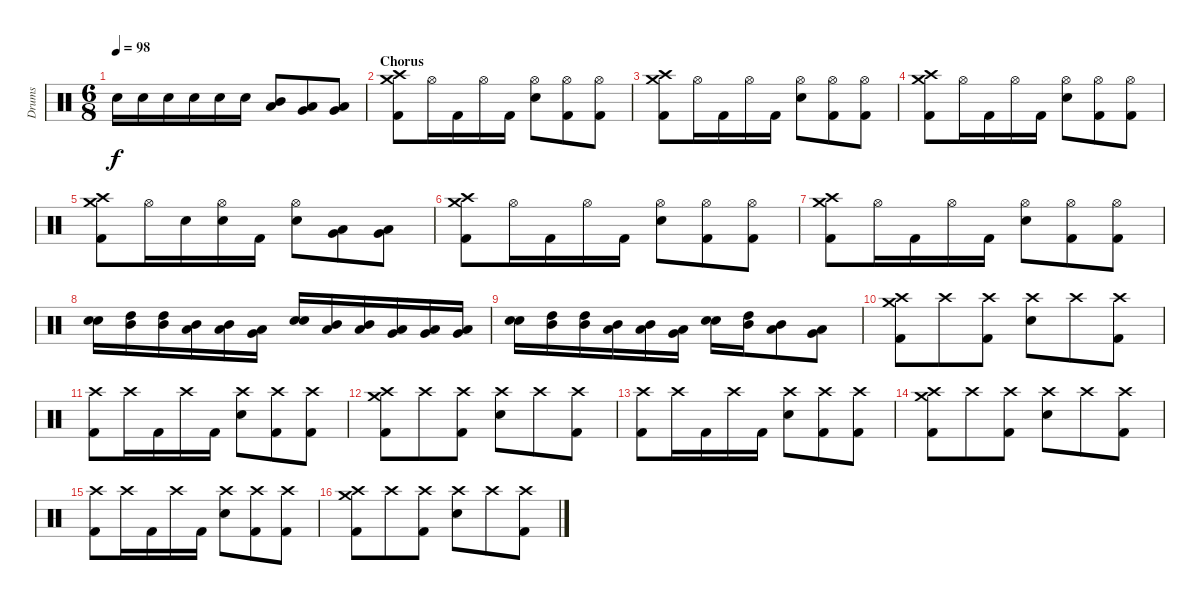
\track ("Drums" "Drums") {instrument percussion}
\staff {score}
\articulation defaults
\ts (6 8)
\tempo 98
\clef neutral
\ks c "Electric Snare (hit)".16{dy f} "Electric Snare (hit)".16 "Electric Snare (hit)".16 "Electric Snare (hit)".16 "Electric Snare (hit)".16 "Electric Snare (hit)".16
("Mid Tom (hit)" "Low Tom (hit)").8 ("Low Tom (hit)" "Very Low Tom (hit)").8 ("Very Low Tom (hit)" "Low Floor Tom (hit)").8 |
\section ("" "Chorus")
("Crash high (hit)" "Crash medium (hit)" "Kick (hit) 2").8 "Hi-Hat (open)".16 "Kick (hit) 2".16 "Hi-Hat (open)".16 "Kick (hit) 2".16 ("Hi-Hat (open)" "Electric Snare (hit)").8 ("Hi-Hat (open)" "Kick (hit) 2").8 ("Hi-Hat (open)" "Kick (hit) 2").8 |
("Crash high (hit)" "Crash medium (hit)" "Kick (hit) 2").8 "Hi-Hat (open)".16 "Kick (hit) 2".16 "Hi-Hat (open)".16 "Kick (hit) 2".16 ("Hi-Hat (open)" "Electric Snare (hit)").8 ("Hi-Hat (open)" "Kick (hit) 2").8 ("Hi-Hat (open)" "Kick (hit) 2").8 |
("Crash high (hit)" "Crash medium (hit)" "Kick (hit) 2").8 "Hi-Hat (open)".16 "Kick (hit) 2".16 "Hi-Hat (open)".16 "Kick (hit) 2".16 ("Hi-Hat (open)" "Electric Snare (hit)").8 ("Hi-Hat (open)" "Kick (hit) 2").8 ("Hi-Hat (open)" "Kick (hit) 2").8 |
("Crash high (hit)" "Crash medium (hit)" "Kick (hit) 2").8 "Hi-Hat (open)".16 "Electric Snare (hit)".16 ("Hi-Hat (open)" "Electric Snare (hit)").16 "Kick (hit) 2".16 ("Hi-Hat (open)" "Electric Snare (hit)").8 ("Low Tom (hit)" "Very Low Tom (hit)").8 ("Very Low Tom (hit)" "Low Floor Tom (hit)").8 |
("Crash high (hit)" "Crash medium (hit)" "Kick (hit) 2").8 "Hi-Hat (open)".16 "Kick (hit) 2".16 "Hi-Hat (open)".16 "Kick (hit) 2".16 ("Hi-Hat (open)" "Electric Snare (hit)").8 ("Hi-Hat (open)" "Kick (hit) 2").8 ("Hi-Hat (open)" "Kick (hit) 2").8 |
("Crash high (hit)" "Crash medium (hit)" "Kick (hit) 2").8 "Hi-Hat (open)".16 "Kick (hit) 2".16 "Hi-Hat (open)".16 "Kick (hit) 2".16 ("Hi-Hat (open)" "Electric Snare (hit)").8 ("Hi-Hat (open)" "Kick (hit) 2").8 ("Hi-Hat (open)" "Kick (hit) 2").8 |
("Electric Snare (hit)" "Electric Snare (hit)").16 ("High Tom (hit)" "Mid Tom (hit)").16 ("High Tom (hit)" "Mid Tom (hit)").16 ("Mid Tom (hit)" "Low Tom (hit)").16 ("Mid Tom (hit)" "Low Tom (hit)").16 ("Low Tom (hit)" "Very Low Tom (hit)").16 ("Electric Snare (hit)" "Electric Snare (hit)").16 ("Mid Tom (hit)" "Low Tom (hit)").16 ("Mid Tom (hit)" "Low Tom (hit)").16 ("Low Tom (hit)" "Very Low Tom (hit)").16 ("Low Tom (hit)" "Very Low Tom (hit)").16 ("Very Low Tom (hit)" "Low Floor Tom (hit)").16 |
("Electric Snare (hit)" "Electric Snare (hit)").16 ("High Tom (hit)" "Mid Tom (hit)").16 ("High Tom (hit)" "Mid Tom (hit)").16 ("Mid Tom (hit)" "Low Tom (hit)").16 ("Mid Tom (hit)" "Low Tom (hit)").16 ("Low Tom (hit)" "Very Low Tom (hit)").16 ("Electric Snare (hit)" "Electric Snare (hit)").16 ("High Tom (hit)" "Mid Tom (hit)").16 ("Mid Tom (hit)" "Low Tom (hit)").8 ("Low Tom (hit)" "Very Low Tom (hit)").8 |
("Crash high (hit)" "Crash medium (hit)" "Kick (hit) 2").8 "Crash high (hit)".8 ("Crash high (hit)" "Kick (hit) 2").8 ("Crash high (hit)" "Electric Snare (hit)").8 "Crash high (hit)".8 ("Crash high (hit)" "Kick (hit) 2").8 |
("Crash high (hit)" "Kick (hit) 2").8 "Crash high (hit)".16 "Kick (hit) 2".16 "Crash high (hit)".16 "Kick (hit) 2".16 ("Crash high (hit)" "Electric Snare (hit)").8 ("Crash high (hit)" "Kick (hit) 2").8 ("Crash high (hit)" "Kick (hit) 2").8 |
("Crash high (hit)" "Crash medium (hit)" "Kick (hit) 2").8 "Crash high (hit)".8 ("Crash high (hit)" "Kick (hit) 2").8 ("Crash high (hit)" "Electric Snare (hit)").8 "Crash high (hit)".8 ("Crash high (hit)" "Kick (hit) 2").8 |
("Crash high (hit)" "Kick (hit) 2").8 "Crash high (hit)".16 "Kick (hit) 2".16 "Crash high (hit)".16 "Kick (hit) 2".16 ("Crash high (hit)" "Electric Snare (hit)").8 ("Crash high (hit)" "Kick (hit) 2").8 ("Crash high (hit)" "Kick (hit) 2").8 |
("Crash high (hit)" "Crash medium (hit)" "Kick (hit) 2").8 "Crash high (hit)".8 ("Crash high (hit)" "Kick (hit) 2").8 ("Crash high (hit)" "Electric Snare (hit)").8 "Crash high (hit)".8 ("Crash high (hit)" "Kick (hit) 2").8 |
("Crash high (hit)" "Kick (hit) 2").8 "Crash high (hit)".16 "Kick (hit) 2".16 "Crash high (hit)".16 "Kick (hit) 2".16 ("Crash high (hit)" "Electric Snare (hit)").8 ("Crash high (hit)" "Kick (hit) 2").8 ("Crash high (hit)" "Kick (hit) 2").8 |
("Crash high (hit)" "Crash medium (hit)" "Kick (hit) 2").8 "Crash high (hit)".8 ("Crash high (hit)" "Kick (hit) 2").8 ("Crash high (hit)" "Electric Snare (hit)").8 "Crash high (hit)".8 ("Crash high (hit)" "Kick (hit) 2").8
